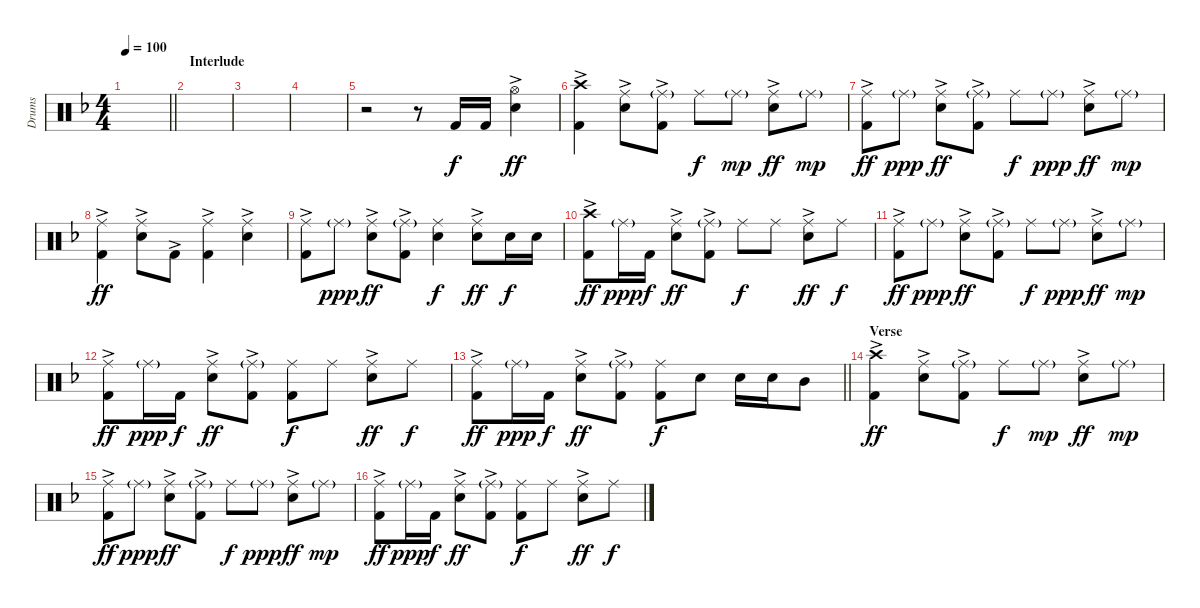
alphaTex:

\track ("Drums" "Drums") {instrument percussion}
\staff {score}
\articulation defaults
\ts (4 4)
\tempo 100
\clef neutral
\barLineRight lightlight
\ks f
|
\section ("" "Interlude")
|
|
|
r.2 r.8 "Kick (hit) 2".16 "Kick (hit) 2".16 ("Hi-Hat (open)" "Snare (hit) 2"{ac}).4{dy ff} |
("Crash high (hit)" "Kick (hit) 2"{ac}).4 ("Ride (middle)" "Snare (hit) 2"{ac}).8 ("Ride (middle)"{g} "Kick (hit) 2"{ac}).8 "Ride (middle)".8{dy f} "Ride (middle)"{g}.8{dy mp} ("Ride (middle)" "Snare (hit) 2"{ac}).8{dy ff} "Ride (middle)"{g}.8{dy mp} |
("Ride (middle)" "Kick (hit) 2"{ac}).8{dy ff} "Ride (middle)"{g}.8{dy ppp} ("Ride (middle)" "Snare (hit) 2"{ac}).8{dy ff} ("Ride (middle)"{g} "Kick (hit) 2"{ac}).8 "Ride (middle)".8{dy f} "Ride (middle)"{g}.8{dy ppp} ("Ride (middle)" "Snare (hit) 2"{ac}).8{dy ff} "Ride (middle)"{g}.8{dy mp} |
("Ride (middle)" "Kick (hit) 2"{ac}).4{dy ff} ("Ride (middle)" "Snare (hit) 2"{ac}).8 "Kick (hit) 2"{ac}.8 ("Ride (middle)" "Kick (hit) 2"{ac}).4 ("Ride (middle)" "Snare (hit) 2"{ac}).4 |
("Ride (middle)" "Kick (hit) 2"{ac}).8 "Ride (middle)"{g}.8{dy ppp} ("Ride (middle)" "Snare (hit) 2"{ac}).8{dy ff} ("Ride (middle)"{g} "Kick (hit) 2"{ac}).8 ("Ride (middle)" "Snare (hit) 2").4{dy f} ("Ride (middle)" "Snare (hit) 2"{ac}).8{dy ff} "Snare (hit) 2".16{dy f} "Snare (hit) 2".16 |
("Crash high (hit)" "Kick (hit) 2"{ac}).8{dy ff} "Ride (middle)"{g}.16{dy ppp} "Kick (hit) 2".16{dy f} ("Ride (middle)" "Snare (hit) 2"{ac}).8{dy ff} ("Ride (middle)"{g} "Kick (hit) 2"{ac}).8 "Ride (middle)".8{dy f} "Ride (middle)".8 ("Ride (middle)" "Snare (hit) 2"{ac}).8{dy ff} "Ride (middle)".8{dy f} |
("Ride (middle)" "Kick (hit) 2"{ac}).8{dy ff} "Ride (middle)"{g}.8{dy ppp} ("Ride (middle)" "Snare (hit) 2"{ac}).8{dy ff} ("Ride (middle)"{g} "Kick (hit) 2"{ac}).8 "Ride (middle)".8{dy f} "Ride (middle)"{g}.8{dy ppp} ("Ride (middle)" "Snare (hit) 2"{ac}).8{dy ff} "Ride (middle)"{g}.8{dy mp} |
("Ride (middle)" "Kick (hit) 2"{ac}).8{dy ff} "Ride (middle)"{g}.16{dy ppp} "Kick (hit) 2".16{dy f} ("Ride (middle)" "Snare (hit) 2"{ac}).8{dy ff} ("Ride (middle)"{g} "Kick (hit) 2"{ac}).8 ("Ride (middle)" "Kick (hit) 2").8{dy f} "Ride (middle)".8 ("Ride (middle)" "Snare (hit) 2"{ac}).8{dy ff} "Ride (middle)".8{dy f} |
\barLineRight lightlight
("Ride (middle)" "Kick (hit) 2"{ac}).8{dy ff} "Ride (middle)"{g}.16{dy ppp} "Kick (hit) 2".16{dy f} ("Ride (middle)" "Snare (hit) 2"{ac}).8{dy ff} ("Ride (middle)"{g} "Kick (hit) 2"{ac}).8 ("Ride (middle)" "Kick (hit) 2").8{dy f} "Snare (hit) 2".8 "Snare (hit) 2".16 "Snare (hit) 2".16 "Mid Tom (hit)".8 |
\section ("" "Verse")
("Crash high (hit)" "Kick (hit) 2"{ac}).4{dy ff} ("Ride (middle)" "Snare (hit) 2"{ac}).8 ("Ride (middle)"{g} "Kick (hit) 2"{ac}).8 "Ride (middle)".8{dy f} "Ride (middle)"{g}.8{dy mp} ("Ride (middle)" "Snare (hit) 2"{ac}).8{dy ff} "Ride (middle)"{g}.8{dy mp} |
("Ride (middle)" "Kick (hit) 2"{ac}).8{dy ff} "Ride (middle)"{g}.8{dy ppp} ("Ride (middle)" "Snare (hit) 2"{ac}).8{dy ff} ("Ride (middle)"{g} "Kick (hit) 2"{ac}).8 "Ride (middle)".8{dy f} "Ride (middle)"{g}.8{dy ppp} ("Ride (middle)" "Snare (hit) 2"{ac}).8{dy ff} "Ride (middle)"{g}.8{dy mp} |
("Ride (middle)" "Kick (hit) 2"{ac}).8{dy ff} "Ride (middle)"{g}.16{dy ppp} "Kick (hit) 2".16{dy f} ("Ride (middle)" "Snare (hit) 2"{ac}).8{dy ff} ("Ride (middle)"{g} "Kick (hit) 2"{ac}).8 ("Ride (middle)" "Kick (hit) 2").8{dy f} "Ride (middle)".8 ("Ride (middle)" "Snare (hit) 2"{ac}).8{dy ff} "Ride (middle)".8{dy f}
